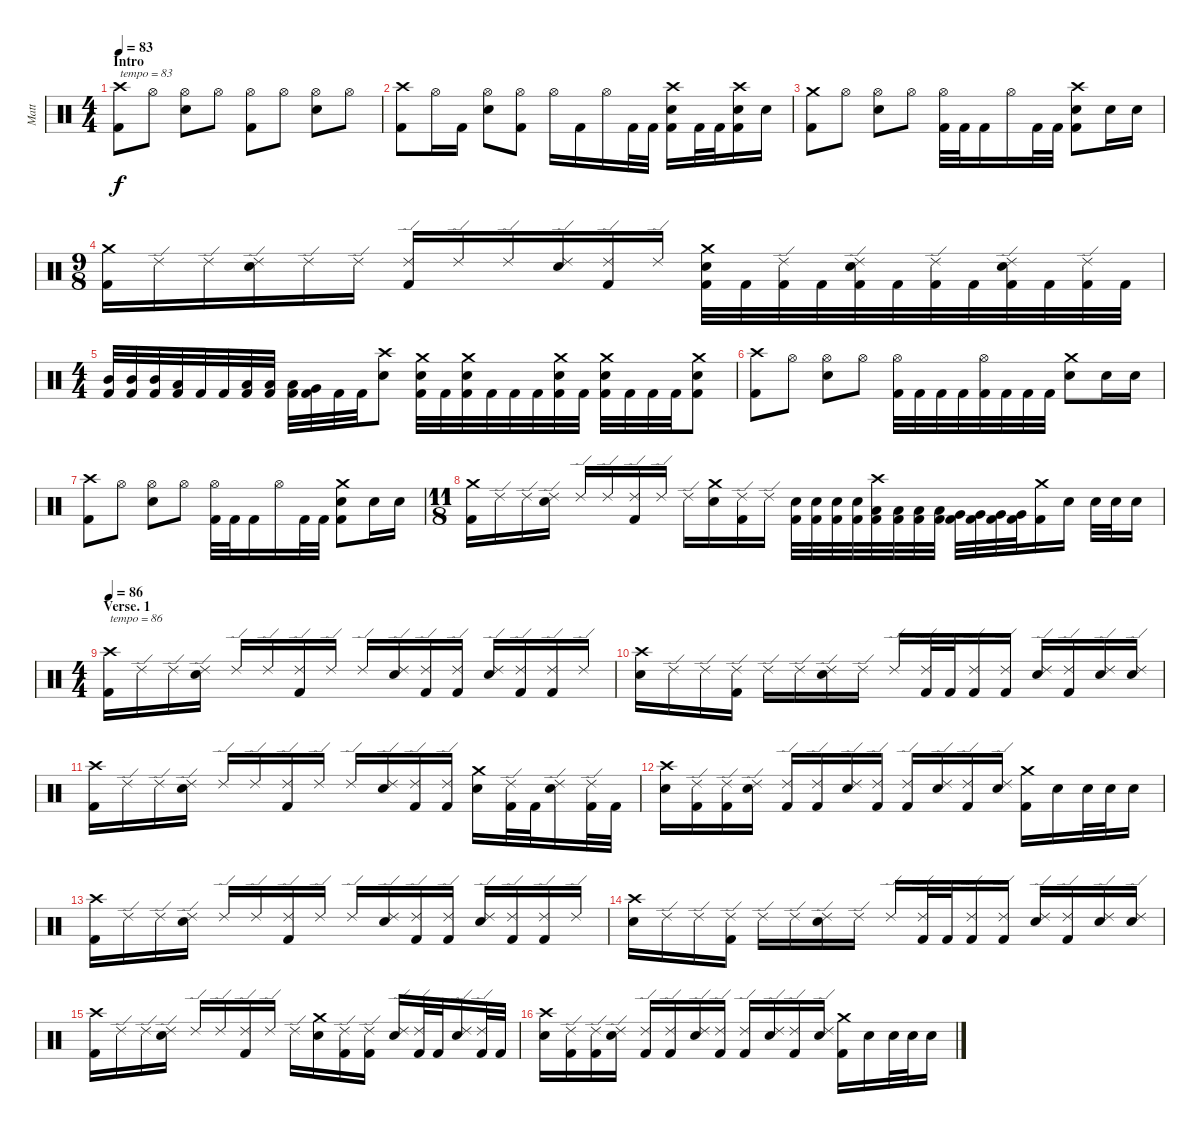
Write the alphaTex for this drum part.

\track ("Matt" "Matt") {instrument percussion}
\staff {score}
\articulation defaults
\ts (4 4)
\section ("" "Intro")
\tempo 83
\clef neutral
\ks c
("Crash high (hit)" "Kick (hit) 2").8{txt "tempo = 83" dy f} "Hi-Hat (open)".8 ("Hi-Hat (open)" "Electric Snare (hit)").8 "Hi-Hat (open)".8 ("Hi-Hat (open)" "Kick (hit) 2").8 "Hi-Hat (open)".8 ("Hi-Hat (open)" "Electric Snare (hit)").8 "Hi-Hat (open)".8 |
("Crash high (hit)" "Kick (hit) 2").8 "Hi-Hat (open)".16 "Kick (hit) 2".16 ("Hi-Hat (open)" "Electric Snare (hit)").8 ("Hi-Hat (open)" "Kick (hit) 2").8 "Hi-Hat (open)".16 "Kick (hit) 2".16 "Hi-Hat (open)".16 "Kick (hit) 2".32 "Kick (hit) 2".32 ("Crash high (hit)" "Electric Snare (hit)" "Kick (hit) 2").16 "Kick (hit) 2".32 "Kick (hit) 2".32 ("Crash high (hit)" "Electric Snare (hit)" "Kick (hit) 2").16 "Electric Snare (hit)".16 |
("Crash medium (hit)" "Kick (hit) 2").8 "Hi-Hat (open)".8 ("Hi-Hat (open)" "Electric Snare (hit)").8 "Hi-Hat (open)".8 ("Hi-Hat (open)" "Kick (hit) 2").32 "Kick (hit) 2".32 "Kick (hit) 2".16 "Hi-Hat (open)".16 "Kick (hit) 2".32 "Kick (hit) 2".32 ("Crash high (hit)" "Electric Snare (hit)" "Kick (hit) 2").8 "Electric Snare (hit)".16 "Electric Snare (hit)".16 |
\ts (9 8)
("Crash medium (hit)" "Kick (hit) 2").16 "Ride (edge) 2".16 "Ride (edge) 2".16 ("Ride (edge) 2" "Electric Snare (hit)").16 "Ride (edge) 2".16 "Ride (edge) 2".16 ("Ride (edge) 2" "Kick (hit) 2").16 "Ride (edge) 2".16 "Ride (edge) 2".16 ("Ride (edge) 2" "Electric Snare (hit)").16 ("Ride (edge) 2" "Kick (hit) 2").16 "Ride (edge) 2".16 ("Crash medium (hit)" "Electric Snare (hit)" "Kick (hit) 2").32 "Kick (hit) 2".32 ("Ride (edge) 2" "Kick (hit) 2").32 "Kick (hit) 2".32 ("Ride (edge) 2" "Electric Snare (hit)" "Kick (hit) 2").32 "Kick (hit) 2".32 ("Ride (edge) 2" "Kick (hit) 2").32 "Kick (hit) 2".32 ("Ride (edge) 2" "Electric Snare (hit)" "Kick (hit) 2").32 "Kick (hit) 2".32 ("Ride (edge) 2" "Kick (hit) 2").32 "Kick (hit) 2".32 |
\ts (4 4)
("Mid Tom (hit)" "Kick (hit) 2").32 ("Mid Tom (hit)" "Kick (hit) 2").32 ("Mid Tom (hit)" "Kick (hit) 2").32 ("Low Tom (hit)" "Kick (hit) 2").32 "Kick (hit) 2".32 "Kick (hit) 2".32 ("Low Tom (hit)" "Kick (hit) 2").32 ("Low Tom (hit)" "Kick (hit) 2").32 ("Low Tom (hit)" "Kick (hit) 2").32 ("Very Low Tom (hit)" "Kick (hit) 2").32 "Kick (hit) 2".32 "Kick (hit) 2".32 ("Crash high (hit)" "Electric Snare (hit)").8 ("Crash medium (hit)" "Electric Snare (hit)" "Kick (hit) 2").32 "Kick (hit) 2".32 ("Crash medium (hit)" "Electric Snare (hit)" "Kick (hit) 2").32 "Kick (hit) 2".32 "Kick (hit) 2".32 "Kick (hit) 2".32 ("Crash medium (hit)" "Electric Snare (hit)" "Kick (hit) 2").32 "Kick (hit) 2".32 ("Crash medium (hit)" "Electric Snare (hit)" "Kick (hit) 2").32 "Kick (hit) 2".32 "Kick (hit) 2".32 "Kick (hit) 2".32 ("Crash medium (hit)" "Electric Snare (hit)" "Kick (hit) 2").8 |
("Crash high (hit)" "Kick (hit) 2").8 "Hi-Hat (open)".8 ("Hi-Hat (open)" "Electric Snare (hit)").8 "Hi-Hat (open)".8 ("Hi-Hat (open)" "Kick (hit) 2").32 "Kick (hit) 2".32 "Kick (hit) 2".32 "Kick (hit) 2".32 ("Hi-Hat (open)" "Kick (hit) 2").32 "Kick (hit) 2".32 "Kick (hit) 2".32 "Kick (hit) 2".32 ("Crash medium (hit)" "Electric Snare (hit)").8 "Electric Snare (hit)".16 "Electric Snare (hit)".16 |
("Crash high (hit)" "Kick (hit) 2").8 "Hi-Hat (open)".8 ("Hi-Hat (open)" "Electric Snare (hit)").8 "Hi-Hat (open)".8 ("Hi-Hat (open)" "Kick (hit) 2").32 "Kick (hit) 2".32 "Kick (hit) 2".16 "Hi-Hat (open)".16 "Kick (hit) 2".32 "Kick (hit) 2".32 ("Crash medium (hit)" "Electric Snare (hit)" "Kick (hit) 2").8 "Electric Snare (hit)".16 "Electric Snare (hit)".16 |
\ts (11 8)
("Crash medium (hit)" "Kick (hit) 2").16 "Ride (edge) 2".16 "Ride (edge) 2".16 ("Ride (edge) 2" "Electric Snare (hit)").16 "Ride (edge) 2".16 "Ride (edge) 2".16 ("Ride (edge) 2" "Kick (hit) 2").16 "Ride (edge) 2".16 "Ride (edge) 2".16 ("Crash medium (hit)" "Electric Snare (hit)").16 ("Ride (edge) 2" "Kick (hit) 2").16 "Ride (edge) 2".16 ("Electric Snare (hit)" "Kick (hit) 2").32 ("Electric Snare (hit)" "Kick (hit) 2").32 ("Electric Snare (hit)" "Kick (hit) 2").32 ("Electric Snare (hit)" "Kick (hit) 2").32 ("Crash high (hit)" "Low Tom (hit)" "Kick (hit) 2").32 ("Low Tom (hit)" "Kick (hit) 2").32 ("Low Tom (hit)" "Kick (hit) 2").32 ("Low Tom (hit)" "Kick (hit) 2").32 ("Very Low Tom (hit)" "Kick (hit) 2").32 ("Very Low Tom (hit)" "Kick (hit) 2").32 ("Very Low Tom (hit)" "Kick (hit) 2").32 ("Very Low Tom (hit)" "Kick (hit) 2").32 ("Crash medium (hit)" "Kick (hit) 2").16 "Electric Snare (hit)".16 "Electric Snare (hit)".32 "Electric Snare (hit)".32 "Electric Snare (hit)".16 |
\ts (4 4)
\section ("" "Verse. 1")
\tempo 86
("Crash high (hit)" "Kick (hit) 2").16{txt "tempo = 86"} "Ride (edge) 2".16 "Ride (edge) 2".16 ("Ride (edge) 2" "Electric Snare (hit)").16 "Ride (edge) 2".16 "Ride (edge) 2".16 ("Ride (edge) 2" "Kick (hit) 2").16 "Ride (edge) 2".16 "Ride (edge) 2".16 ("Ride (edge) 2" "Electric Snare (hit)").16 ("Ride (edge) 2" "Kick (hit) 2").16 ("Ride (edge) 2" "Kick (hit) 2").16 ("Ride (edge) 2" "Electric Snare (hit)").16 ("Ride (edge) 2" "Kick (hit) 2").16 ("Ride (edge) 2" "Kick (hit) 2").16 "Ride (edge) 2".16 |
("Crash high (hit)" "Electric Snare (hit)").16 "Ride (edge) 2".16 "Ride (edge) 2".16 ("Ride (edge) 2" "Kick (hit) 2").16 "Ride (edge) 2".16 "Ride (edge) 2".16 ("Ride (edge) 2" "Electric Snare (hit)").16 "Ride (edge) 2".16 "Ride (edge) 2".16 ("Ride (edge) 2" "Kick (hit) 2").32 "Kick (hit) 2".32 ("Ride (edge) 2" "Kick (hit) 2").16 ("Ride (edge) 2" "Kick (hit) 2").16 ("Ride (edge) 2" "Electric Snare (hit)").16 ("Ride (edge) 2" "Kick (hit) 2").16 ("Ride (edge) 2" "Electric Snare (hit)").16 ("Ride (edge) 2" "Electric Snare (hit)").16 |
("Crash high (hit)" "Kick (hit) 2").16 "Ride (edge) 2".16 "Ride (edge) 2".16 ("Ride (edge) 2" "Electric Snare (hit)").16 "Ride (edge) 2".16 "Ride (edge) 2".16 ("Ride (edge) 2" "Kick (hit) 2").16 "Ride (edge) 2".16 "Ride (edge) 2".16 ("Ride (edge) 2" "Electric Snare (hit)").16 ("Ride (edge) 2" "Kick (hit) 2").16 ("Ride (edge) 2" "Kick (hit) 2").16 ("Crash medium (hit)" "Electric Snare (hit)").16 ("Ride (edge) 2" "Kick (hit) 2").32 "Kick (hit) 2".32 ("Ride (edge) 2" "Electric Snare (hit)").16 ("Ride (edge) 2" "Kick (hit) 2").32 "Kick (hit) 2".32 |
("Crash high (hit)" "Electric Snare (hit)").16 ("Ride (edge) 2" "Kick (hit) 2").16 ("Ride (edge) 2" "Kick (hit) 2").16 ("Ride (edge) 2" "Electric Snare (hit)").16 ("Ride (edge) 2" "Kick (hit) 2").16 ("Ride (edge) 2" "Kick (hit) 2").16 ("Ride (edge) 2" "Electric Snare (hit)").16 ("Ride (edge) 2" "Kick (hit) 2").16 ("Ride (edge) 2" "Kick (hit) 2").16 ("Ride (edge) 2" "Electric Snare (hit)").16 ("Ride (edge) 2" "Kick (hit) 2").16 ("Ride (edge) 2" "Electric Snare (hit)").16 ("Crash medium (hit)" "Kick (hit) 2").16 "Electric Snare (hit)".16 "Electric Snare (hit)".32 "Electric Snare (hit)".32 "Electric Snare (hit)".16 |
("Crash high (hit)" "Kick (hit) 2").16 "Ride (edge) 2".16 "Ride (edge) 2".16 ("Ride (edge) 2" "Electric Snare (hit)").16 "Ride (edge) 2".16 "Ride (edge) 2".16 ("Ride (edge) 2" "Kick (hit) 2").16 "Ride (edge) 2".16 "Ride (edge) 2".16 ("Ride (edge) 2" "Electric Snare (hit)").16 ("Ride (edge) 2" "Kick (hit) 2").16 ("Ride (edge) 2" "Kick (hit) 2").16 ("Ride (edge) 2" "Electric Snare (hit)").16 ("Ride (edge) 2" "Kick (hit) 2").16 ("Ride (edge) 2" "Kick (hit) 2").16 "Ride (edge) 2".16 |
("Crash high (hit)" "Electric Snare (hit)").16 "Ride (edge) 2".16 "Ride (edge) 2".16 ("Ride (edge) 2" "Kick (hit) 2").16 "Ride (edge) 2".16 "Ride (edge) 2".16 ("Ride (edge) 2" "Electric Snare (hit)").16 "Ride (edge) 2".16 "Ride (edge) 2".16 ("Ride (edge) 2" "Kick (hit) 2").32 "Kick (hit) 2".32 ("Ride (edge) 2" "Kick (hit) 2").16 ("Ride (edge) 2" "Kick (hit) 2").16 ("Ride (edge) 2" "Electric Snare (hit)").16 ("Ride (edge) 2" "Kick (hit) 2").16 ("Ride (edge) 2" "Electric Snare (hit)").16 ("Ride (edge) 2" "Electric Snare (hit)").16 |
("Crash high (hit)" "Kick (hit) 2").16 "Ride (edge) 2".16 "Ride (edge) 2".16 ("Ride (edge) 2" "Electric Snare (hit)").16 "Ride (edge) 2".16 "Ride (edge) 2".16 ("Ride (edge) 2" "Kick (hit) 2").16 "Ride (edge) 2".16 "Ride (edge) 2".16 ("Crash medium (hit)" "Electric Snare (hit)").16 ("Ride (edge) 2" "Kick (hit) 2").16 ("Ride (edge) 2" "Kick (hit) 2").16 ("Ride (edge) 2" "Electric Snare (hit)").16 ("Ride (edge) 2" "Kick (hit) 2").32 "Kick (hit) 2".32 ("Ride (edge) 2" "Electric Snare (hit)").16 ("Ride (edge) 2" "Kick (hit) 2").32 "Kick (hit) 2".32 |
("Crash high (hit)" "Electric Snare (hit)").16 ("Ride (edge) 2" "Kick (hit) 2").16 ("Ride (edge) 2" "Kick (hit) 2").16 ("Ride (edge) 2" "Electric Snare (hit)").16 ("Ride (edge) 2" "Kick (hit) 2").16 ("Ride (edge) 2" "Kick (hit) 2").16 ("Ride (edge) 2" "Electric Snare (hit)").16 ("Ride (edge) 2" "Kick (hit) 2").16 ("Ride (edge) 2" "Kick (hit) 2").16 ("Ride (edge) 2" "Electric Snare (hit)").16 ("Ride (edge) 2" "Kick (hit) 2").16 ("Ride (edge) 2" "Electric Snare (hit)").16 ("Crash medium (hit)" "Kick (hit) 2").16 "Electric Snare (hit)".16 "Electric Snare (hit)".32 "Electric Snare (hit)".32 "Electric Snare (hit)".16
